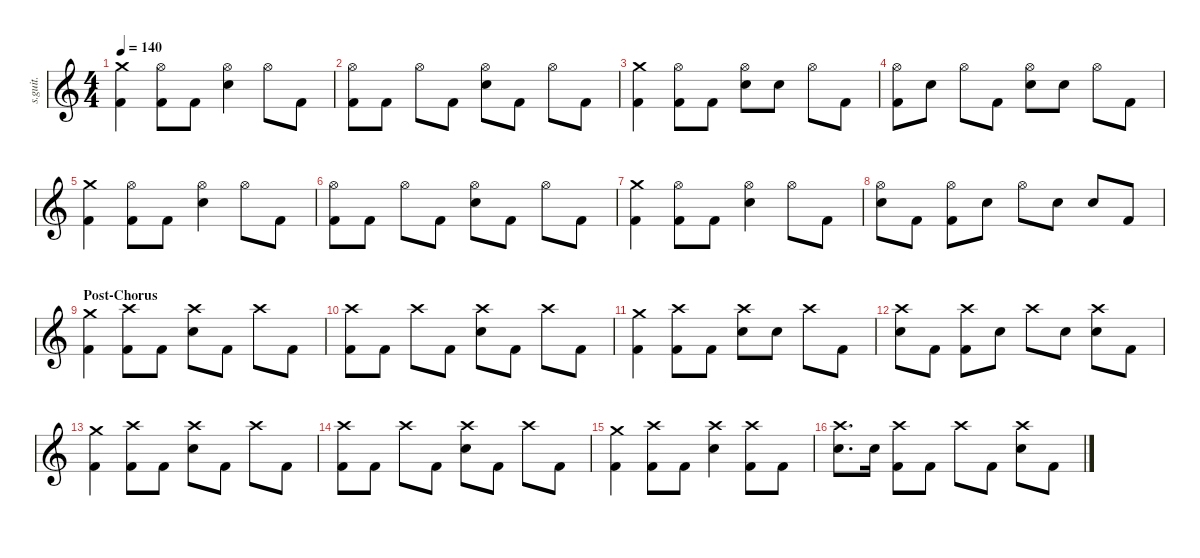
\defaultSystemsLayout 4
\hideDynamics
\bracketExtendMode nobrackets
\track ("Abe Cunningham" "s.guit.") {instrument percussion}
\staff {score}
\articulation defaults
\ts (4 4)
\tempo 140
\clef g2
\ks c
("Crash medium (hit)" "Kick (hit) 2").4{lyrics (0 "") lyrics (1 "") lyrics (2 "") lyrics (3 "") lyrics (4 "") dy fff} ("Hi-Hat (open)" "Kick (hit) 2").8{lyrics (0 "") lyrics (1 "") lyrics (2 "") lyrics (3 "") lyrics (4 "")} "Kick (hit) 2".8{lyrics (0 "") lyrics (1 "") lyrics (2 "") lyrics (3 "") lyrics (4 "")} ("Hi-Hat (open)" "Snare (hit) 2").4{lyrics (0 "") lyrics (1 "") lyrics (2 "") lyrics (3 "") lyrics (4 "")} "Hi-Hat (open)".8{lyrics (0 "") lyrics (1 "") lyrics (2 "") lyrics (3 "") lyrics (4 "")} "Kick (hit) 2".8{lyrics (0 "") lyrics (1 "") lyrics (2 "") lyrics (3 "") lyrics (4 "")} |
("Hi-Hat (open)" "Kick (hit) 2").8{lyrics (0 "") lyrics (1 "") lyrics (2 "") lyrics (3 "") lyrics (4 "")} "Kick (hit) 2".8{lyrics (0 "") lyrics (1 "") lyrics (2 "") lyrics (3 "") lyrics (4 "")} "Hi-Hat (open)".8{lyrics (0 "") lyrics (1 "") lyrics (2 "") lyrics (3 "") lyrics (4 "")} "Kick (hit) 2".8{lyrics (0 "") lyrics (1 "") lyrics (2 "") lyrics (3 "") lyrics (4 "")} ("Hi-Hat (open)" "Snare (hit) 2").8{lyrics (0 "") lyrics (1 "") lyrics (2 "") lyrics (3 "") lyrics (4 "")} "Kick (hit) 2".8{lyrics (0 "") lyrics (1 "") lyrics (2 "") lyrics (3 "") lyrics (4 "")} "Hi-Hat (open)".8{lyrics (0 "") lyrics (1 "") lyrics (2 "") lyrics (3 "") lyrics (4 "")} "Kick (hit) 2".8{lyrics (0 "") lyrics (1 "") lyrics (2 "") lyrics (3 "") lyrics (4 "")} |
("Crash medium (hit)" "Kick (hit) 2").4{lyrics (0 "") lyrics (1 "") lyrics (2 "") lyrics (3 "") lyrics (4 "")} ("Hi-Hat (open)" "Kick (hit) 2").8{lyrics (0 "") lyrics (1 "") lyrics (2 "") lyrics (3 "") lyrics (4 "")} "Kick (hit) 2".8{lyrics (0 "") lyrics (1 "") lyrics (2 "") lyrics (3 "") lyrics (4 "")} ("Hi-Hat (open)" "Snare (hit) 2").8{lyrics (0 "") lyrics (1 "") lyrics (2 "") lyrics (3 "") lyrics (4 "")} "Snare (hit) 2".8{lyrics (0 "") lyrics (1 "") lyrics (2 "") lyrics (3 "") lyrics (4 "")} "Hi-Hat (open)".8{lyrics (0 "") lyrics (1 "") lyrics (2 "") lyrics (3 "") lyrics (4 "")} "Kick (hit) 2".8{lyrics (0 "") lyrics (1 "") lyrics (2 "") lyrics (3 "") lyrics (4 "")} |
("Hi-Hat (open)" "Kick (hit) 2").8{lyrics (0 "") lyrics (1 "") lyrics (2 "") lyrics (3 "") lyrics (4 "")} "Snare (hit) 2".8{lyrics (0 "") lyrics (1 "") lyrics (2 "") lyrics (3 "") lyrics (4 "")} "Hi-Hat (open)".8{lyrics (0 "") lyrics (1 "") lyrics (2 "") lyrics (3 "") lyrics (4 "")} "Kick (hit) 2".8{lyrics (0 "") lyrics (1 "") lyrics (2 "") lyrics (3 "") lyrics (4 "")} ("Hi-Hat (open)" "Snare (hit) 2").8{lyrics (0 "") lyrics (1 "") lyrics (2 "") lyrics (3 "") lyrics (4 "")} "Snare (hit) 2".8{lyrics (0 "") lyrics (1 "") lyrics (2 "") lyrics (3 "") lyrics (4 "")} "Hi-Hat (open)".8{lyrics (0 "") lyrics (1 "") lyrics (2 "") lyrics (3 "") lyrics (4 "")} "Kick (hit) 2".8{lyrics (0 "") lyrics (1 "") lyrics (2 "") lyrics (3 "") lyrics (4 "")} |
("Crash medium (hit)" "Kick (hit) 2").4{lyrics (0 "") lyrics (1 "") lyrics (2 "") lyrics (3 "") lyrics (4 "")} ("Hi-Hat (open)" "Kick (hit) 2").8{lyrics (0 "") lyrics (1 "") lyrics (2 "") lyrics (3 "") lyrics (4 "")} "Kick (hit) 2".8{lyrics (0 "") lyrics (1 "") lyrics (2 "") lyrics (3 "") lyrics (4 "")} ("Hi-Hat (open)" "Snare (hit) 2").4{lyrics (0 "") lyrics (1 "") lyrics (2 "") lyrics (3 "") lyrics (4 "")} "Hi-Hat (open)".8{lyrics (0 "") lyrics (1 "") lyrics (2 "") lyrics (3 "") lyrics (4 "")} "Kick (hit) 2".8{lyrics (0 "") lyrics (1 "") lyrics (2 "") lyrics (3 "") lyrics (4 "")} |
("Hi-Hat (open)" "Kick (hit) 2").8{lyrics (0 "") lyrics (1 "") lyrics (2 "") lyrics (3 "") lyrics (4 "")} "Kick (hit) 2".8{lyrics (0 "") lyrics (1 "") lyrics (2 "") lyrics (3 "") lyrics (4 "")} "Hi-Hat (open)".8{lyrics (0 "") lyrics (1 "") lyrics (2 "") lyrics (3 "") lyrics (4 "")} "Kick (hit) 2".8{lyrics (0 "") lyrics (1 "") lyrics (2 "") lyrics (3 "") lyrics (4 "")} ("Hi-Hat (open)" "Snare (hit) 2").8{lyrics (0 "") lyrics (1 "") lyrics (2 "") lyrics (3 "") lyrics (4 "")} "Kick (hit) 2".8{lyrics (0 "") lyrics (1 "") lyrics (2 "") lyrics (3 "") lyrics (4 "")} "Hi-Hat (open)".8{lyrics (0 "") lyrics (1 "") lyrics (2 "") lyrics (3 "") lyrics (4 "")} "Kick (hit) 2".8{lyrics (0 "") lyrics (1 "") lyrics (2 "") lyrics (3 "") lyrics (4 "")} |
("Crash medium (hit)" "Kick (hit) 2").4{lyrics (0 "") lyrics (1 "") lyrics (2 "") lyrics (3 "") lyrics (4 "")} ("Hi-Hat (open)" "Kick (hit) 2").8{lyrics (0 "") lyrics (1 "") lyrics (2 "") lyrics (3 "") lyrics (4 "")} "Kick (hit) 2".8{lyrics (0 "") lyrics (1 "") lyrics (2 "") lyrics (3 "") lyrics (4 "")} ("Hi-Hat (open)" "Snare (hit) 2").4{lyrics (0 "") lyrics (1 "") lyrics (2 "") lyrics (3 "") lyrics (4 "")} "Hi-Hat (open)".8{lyrics (0 "") lyrics (1 "") lyrics (2 "") lyrics (3 "") lyrics (4 "")} "Kick (hit) 2".8{lyrics (0 "") lyrics (1 "") lyrics (2 "") lyrics (3 "") lyrics (4 "")} |
("Hi-Hat (open)" "Snare (hit) 2").8{lyrics (0 "") lyrics (1 "") lyrics (2 "") lyrics (3 "") lyrics (4 "")} "Kick (hit) 2".8{lyrics (0 "") lyrics (1 "") lyrics (2 "") lyrics (3 "") lyrics (4 "")} ("Hi-Hat (open)" "Kick (hit) 2").8{lyrics (0 "") lyrics (1 "") lyrics (2 "") lyrics (3 "") lyrics (4 "")} "Snare (hit) 2".8{lyrics (0 "") lyrics (1 "") lyrics (2 "") lyrics (3 "") lyrics (4 "")} "Hi-Hat (open)".8{lyrics (0 "") lyrics (1 "") lyrics (2 "") lyrics (3 "") lyrics (4 "")} "Snare (hit) 2".8{lyrics (0 "") lyrics (1 "") lyrics (2 "") lyrics (3 "") lyrics (4 "")} "Snare (hit) 2".8{lyrics (0 "") lyrics (1 "") lyrics (2 "") lyrics (3 "") lyrics (4 "")} "Kick (hit) 2".8{lyrics (0 "") lyrics (1 "") lyrics (2 "") lyrics (3 "") lyrics (4 "")} |
\section ("" "Post-Chorus")
("Crash medium (hit)" "Kick (hit) 2").4{lyrics (0 "") lyrics (1 "") lyrics (2 "") lyrics (3 "") lyrics (4 "")} ("Crash high (hit)" "Kick (hit) 2").8{lyrics (0 "") lyrics (1 "") lyrics (2 "") lyrics (3 "") lyrics (4 "")} "Kick (hit) 2".8{lyrics (0 "") lyrics (1 "") lyrics (2 "") lyrics (3 "") lyrics (4 "")} ("Crash high (hit)" "Snare (hit) 2").8{lyrics (0 "") lyrics (1 "") lyrics (2 "") lyrics (3 "") lyrics (4 "")} "Kick (hit) 2".8{lyrics (0 "") lyrics (1 "") lyrics (2 "") lyrics (3 "") lyrics (4 "")} "Crash high (hit)".8{lyrics (0 "") lyrics (1 "") lyrics (2 "") lyrics (3 "") lyrics (4 "")} "Kick (hit) 2".8{lyrics (0 "") lyrics (1 "") lyrics (2 "") lyrics (3 "") lyrics (4 "")} |
("Crash high (hit)" "Kick (hit) 2").8{lyrics (0 "") lyrics (1 "") lyrics (2 "") lyrics (3 "") lyrics (4 "")} "Kick (hit) 2".8{lyrics (0 "") lyrics (1 "") lyrics (2 "") lyrics (3 "") lyrics (4 "")} "Crash high (hit)".8{lyrics (0 "") lyrics (1 "") lyrics (2 "") lyrics (3 "") lyrics (4 "")} "Kick (hit) 2".8{lyrics (0 "") lyrics (1 "") lyrics (2 "") lyrics (3 "") lyrics (4 "")} ("Crash high (hit)" "Snare (hit) 2").8{lyrics (0 "") lyrics (1 "") lyrics (2 "") lyrics (3 "") lyrics (4 "")} "Kick (hit) 2".8{lyrics (0 "") lyrics (1 "") lyrics (2 "") lyrics (3 "") lyrics (4 "")} "Crash high (hit)".8{lyrics (0 "") lyrics (1 "") lyrics (2 "") lyrics (3 "") lyrics (4 "")} "Kick (hit) 2".8{lyrics (0 "") lyrics (1 "") lyrics (2 "") lyrics (3 "") lyrics (4 "")} |
("Crash medium (hit)" "Kick (hit) 2").4{lyrics (0 "") lyrics (1 "") lyrics (2 "") lyrics (3 "") lyrics (4 "")} ("Crash high (hit)" "Kick (hit) 2").8{lyrics (0 "") lyrics (1 "") lyrics (2 "") lyrics (3 "") lyrics (4 "")} "Kick (hit) 2".8{lyrics (0 "") lyrics (1 "") lyrics (2 "") lyrics (3 "") lyrics (4 "")} ("Crash high (hit)" "Snare (hit) 2").8{lyrics (0 "") lyrics (1 "") lyrics (2 "") lyrics (3 "") lyrics (4 "")} "Snare (hit) 2".8{lyrics (0 "") lyrics (1 "") lyrics (2 "") lyrics (3 "") lyrics (4 "")} "Crash high (hit)".8{lyrics (0 "") lyrics (1 "") lyrics (2 "") lyrics (3 "") lyrics (4 "")} "Kick (hit) 2".8{lyrics (0 "") lyrics (1 "") lyrics (2 "") lyrics (3 "") lyrics (4 "")} |
("Crash high (hit)" "Snare (hit) 2").8{lyrics (0 "") lyrics (1 "") lyrics (2 "") lyrics (3 "") lyrics (4 "")} "Kick (hit) 2".8{lyrics (0 "") lyrics (1 "") lyrics (2 "") lyrics (3 "") lyrics (4 "")} ("Crash high (hit)" "Kick (hit) 2").8{lyrics (0 "") lyrics (1 "") lyrics (2 "") lyrics (3 "") lyrics (4 "")} "Snare (hit) 2".8{lyrics (0 "") lyrics (1 "") lyrics (2 "") lyrics (3 "") lyrics (4 "")} "Crash high (hit)".8{lyrics (0 "") lyrics (1 "") lyrics (2 "") lyrics (3 "") lyrics (4 "")} "Snare (hit) 2".8{lyrics (0 "") lyrics (1 "") lyrics (2 "") lyrics (3 "") lyrics (4 "")} ("Crash high (hit)" "Snare (hit) 2").8{lyrics (0 "") lyrics (1 "") lyrics (2 "") lyrics (3 "") lyrics (4 "")} "Kick (hit) 2".8{lyrics (0 "") lyrics (1 "") lyrics (2 "") lyrics (3 "") lyrics (4 "")} |
("Crash medium (hit)" "Kick (hit) 2").4{lyrics (0 "") lyrics (1 "") lyrics (2 "") lyrics (3 "") lyrics (4 "")} ("Crash high (hit)" "Kick (hit) 2").8{lyrics (0 "") lyrics (1 "") lyrics (2 "") lyrics (3 "") lyrics (4 "")} "Kick (hit) 2".8{lyrics (0 "") lyrics (1 "") lyrics (2 "") lyrics (3 "") lyrics (4 "")} ("Crash high (hit)" "Snare (hit) 2").8{lyrics (0 "") lyrics (1 "") lyrics (2 "") lyrics (3 "") lyrics (4 "")} "Kick (hit) 2".8{lyrics (0 "") lyrics (1 "") lyrics (2 "") lyrics (3 "") lyrics (4 "")} "Crash high (hit)".8{lyrics (0 "") lyrics (1 "") lyrics (2 "") lyrics (3 "") lyrics (4 "")} "Kick (hit) 2".8{lyrics (0 "") lyrics (1 "") lyrics (2 "") lyrics (3 "") lyrics (4 "")} |
("Crash high (hit)" "Kick (hit) 2").8{lyrics (0 "") lyrics (1 "") lyrics (2 "") lyrics (3 "") lyrics (4 "")} "Kick (hit) 2".8{lyrics (0 "") lyrics (1 "") lyrics (2 "") lyrics (3 "") lyrics (4 "")} "Crash high (hit)".8{lyrics (0 "") lyrics (1 "") lyrics (2 "") lyrics (3 "") lyrics (4 "")} "Kick (hit) 2".8{lyrics (0 "") lyrics (1 "") lyrics (2 "") lyrics (3 "") lyrics (4 "")} ("Crash high (hit)" "Snare (hit) 2").8{lyrics (0 "") lyrics (1 "") lyrics (2 "") lyrics (3 "") lyrics (4 "")} "Kick (hit) 2".8{lyrics (0 "") lyrics (1 "") lyrics (2 "") lyrics (3 "") lyrics (4 "")} "Crash high (hit)".8{lyrics (0 "") lyrics (1 "") lyrics (2 "") lyrics (3 "") lyrics (4 "")} "Kick (hit) 2".8{lyrics (0 "") lyrics (1 "") lyrics (2 "") lyrics (3 "") lyrics (4 "")} |
("Crash medium (hit)" "Kick (hit) 2").4{lyrics (0 "") lyrics (1 "") lyrics (2 "") lyrics (3 "") lyrics (4 "")} ("Crash high (hit)" "Kick (hit) 2").8{lyrics (0 "") lyrics (1 "") lyrics (2 "") lyrics (3 "") lyrics (4 "")} "Kick (hit) 2".8{lyrics (0 "") lyrics (1 "") lyrics (2 "") lyrics (3 "") lyrics (4 "")} ("Crash high (hit)" "Snare (hit) 2").4{lyrics (0 "") lyrics (1 "") lyrics (2 "") lyrics (3 "") lyrics (4 "")} ("Crash high (hit)" "Kick (hit) 2").8{lyrics (0 "") lyrics (1 "") lyrics (2 "") lyrics (3 "") lyrics (4 "")} "Kick (hit) 2".8{lyrics (0 "") lyrics (1 "") lyrics (2 "") lyrics (3 "") lyrics (4 "")} |
("Crash high (hit)" "Snare (hit) 2").8{d lyrics (0 "") lyrics (1 "") lyrics (2 "") lyrics (3 "") lyrics (4 "")} "Snare (hit) 2".16{lyrics (0 "") lyrics (1 "") lyrics (2 "") lyrics (3 "") lyrics (4 "")} ("Crash high (hit)" "Kick (hit) 2").8{lyrics (0 "") lyrics (1 "") lyrics (2 "") lyrics (3 "") lyrics (4 "")} "Kick (hit) 2".8{lyrics (0 "") lyrics (1 "") lyrics (2 "") lyrics (3 "") lyrics (4 "")} "Crash high (hit)".8{lyrics (0 "") lyrics (1 "") lyrics (2 "") lyrics (3 "") lyrics (4 "")} "Kick (hit) 2".8{lyrics (0 "") lyrics (1 "") lyrics (2 "") lyrics (3 "") lyrics (4 "")} ("Crash high (hit)" "Snare (hit) 2").8{lyrics (0 "") lyrics (1 "") lyrics (2 "") lyrics (3 "") lyrics (4 "")} "Kick (hit) 2".8{lyrics (0 "") lyrics (1 "") lyrics (2 "") lyrics (3 "") lyrics (4 "")}
